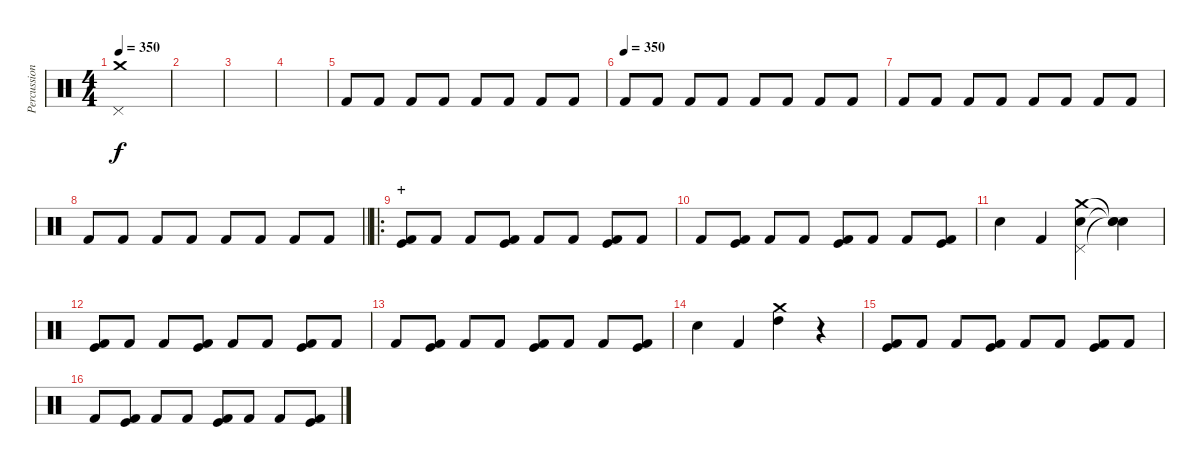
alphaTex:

\track ("Percussion" "Percussion") {instrument percussion}
\staff {score}
\articulation defaults
\ts (4 4)
\tempo 350
\clef neutral
\ks c
("Crash medium (hit)" "Pedal Hi-Hat (hit)").1{dy f} |
|
|
|
"Kick (hit) 2".8 "Kick (hit) 2".8 "Kick (hit) 2".8 "Kick (hit) 2".8 "Kick (hit) 2".8 "Kick (hit) 2".8 "Kick (hit) 2".8 "Kick (hit) 2".8 |
\tempo (350)
"Kick (hit) 2".8 "Kick (hit) 2".8 "Kick (hit) 2".8 "Kick (hit) 2".8 "Kick (hit) 2".8 "Kick (hit) 2".8 "Kick (hit) 2".8 "Kick (hit) 2".8 |
"Kick (hit) 2".8 "Kick (hit) 2".8 "Kick (hit) 2".8 "Kick (hit) 2".8 "Kick (hit) 2".8 "Kick (hit) 2".8 "Kick (hit) 2".8 "Kick (hit) 2".8 |
\barLineRight lightlight "Kick (hit) 2".8 "Kick (hit) 2".8 "Kick (hit) 2".8 "Kick (hit) 2".8 "Kick (hit) 2".8 "Kick (hit) 2".8 "Kick (hit) 2".8 "Kick (hit) 2".8
|
\ro
\section ("" "+")
("Kick (hit)" "Kick (hit) 2").8 "Kick (hit) 2".8 "Kick (hit) 2".8 ("Kick (hit)" "Kick (hit) 2").8 "Kick (hit) 2".8 "Kick (hit) 2".8 ("Kick (hit)" "Kick (hit) 2").8 "Kick (hit) 2".8 |
"Kick (hit) 2".8 ("Kick (hit)" "Kick (hit) 2").8 "Kick (hit) 2".8 "Kick (hit) 2".8 ("Kick (hit)" "Kick (hit) 2").8 "Kick (hit) 2".8 "Kick (hit) 2".8 ("Kick (hit)" "Kick (hit) 2").8 |
"Snare (hit) 2".4 "Kick (hit) 2".4 ("Crash medium (hit)" "Pedal Hi-Hat (hit)" "Snare (hit) 2").4 ("Snare (hit)"{t} "Snare (hit)"{t} "Snare (hit)"{t}).4 |
("Kick (hit)" "Kick (hit) 2").8 "Kick (hit) 2".8 "Kick (hit) 2".8 ("Kick (hit)" "Kick (hit) 2").8 "Kick (hit) 2".8 "Kick (hit) 2".8 ("Kick (hit)" "Kick (hit) 2").8 "Kick (hit) 2".8 |
"Kick (hit) 2".8 ("Kick (hit)" "Kick (hit) 2").8 "Kick (hit) 2".8 "Kick (hit) 2".8 ("Kick (hit)" "Kick (hit) 2").8 "Kick (hit) 2".8 "Kick (hit) 2".8 ("Kick (hit)" "Kick (hit) 2").8 |
"Snare (hit) 2".4 "Kick (hit) 2".4 ("Crash medium (hit)" "High Tom (hit)").4 r.4 |
("Kick (hit)" "Kick (hit) 2").8 "Kick (hit) 2".8 "Kick (hit) 2".8 ("Kick (hit)" "Kick (hit) 2").8 "Kick (hit) 2".8 "Kick (hit) 2".8 ("Kick (hit)" "Kick (hit) 2").8 "Kick (hit) 2".8 |
"Kick (hit) 2".8 ("Kick (hit)" "Kick (hit) 2").8 "Kick (hit) 2".8 "Kick (hit) 2".8 ("Kick (hit)" "Kick (hit) 2").8 "Kick (hit) 2".8 "Kick (hit) 2".8 ("Kick (hit)" "Kick (hit) 2").8
